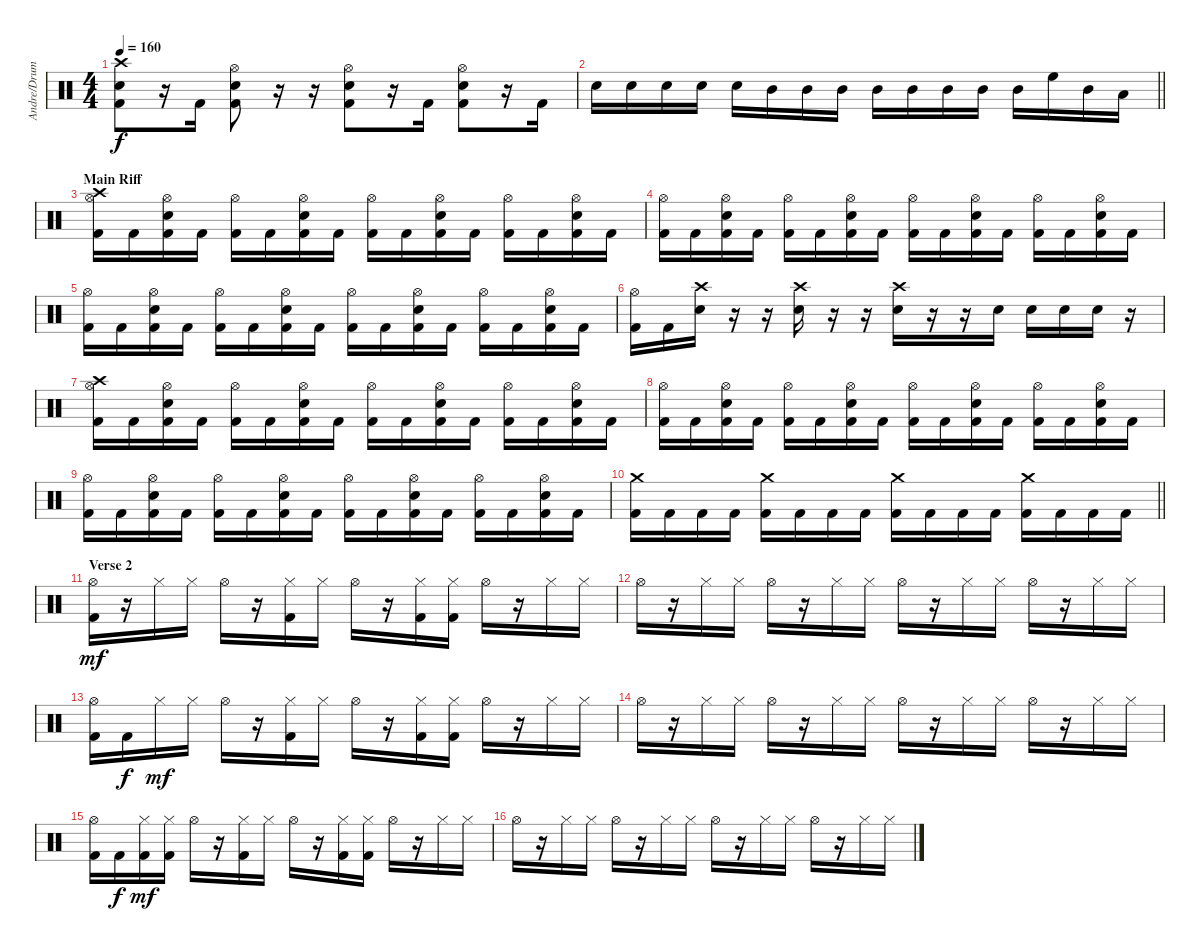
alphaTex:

\track ("Andre/Drums" "Andre/Drum") {instrument percussion}
\staff {score}
\articulation defaults
\ts (4 4)
\tempo 160
\clef neutral
\ks c
("Crash high (hit)" "Snare (hit) 2" "Kick (hit) 2").8{dy f} r.16 "Kick (hit) 2".16 ("Hi-Hat (open)" "Snare (hit) 2" "Kick (hit) 2").8 r.16 r.16 ("Hi-Hat (open)" "Snare (hit) 2" "Kick (hit) 2").8 r.16 "Kick (hit) 2".16 ("Hi-Hat (open)" "Snare (hit) 2" "Kick (hit) 2").8 r.16 "Kick (hit) 2".16 |
\barLineRight lightlight "Snare (hit) 2".16 "Snare (hit) 2".16 "Snare (hit) 2".16 "Snare (hit) 2".16 "Snare (hit) 2".16 "Mid Tom (hit)".16 "Mid Tom (hit)".16 "Mid Tom (hit)".16 "Mid Tom (hit)".16 "Mid Tom (hit)".16 "Mid Tom (hit)".16 "Mid Tom (hit)".16 "Mid Tom (hit)".16 "High Floor Tom (hit)".16 "Mid Tom (hit)".16 "Low Tom (hit)".16
|
\section ("" "Main Riff")
("Crash high (hit)" "Hi-Hat (open)" "Kick (hit) 2").16 "Kick (hit) 2".16 ("Hi-Hat (open)" "Snare (hit) 2" "Kick (hit) 2").16 "Kick (hit) 2".16 ("Hi-Hat (open)" "Kick (hit) 2").16 "Kick (hit) 2".16 ("Hi-Hat (open)" "Snare (hit) 2" "Kick (hit) 2").16 "Kick (hit) 2".16 ("Hi-Hat (open)" "Kick (hit) 2").16 "Kick (hit) 2".16 ("Hi-Hat (open)" "Snare (hit) 2" "Kick (hit) 2").16 "Kick (hit) 2".16 ("Hi-Hat (open)" "Kick (hit) 2").16 "Kick (hit) 2".16 ("Hi-Hat (open)" "Snare (hit) 2" "Kick (hit) 2").16 "Kick (hit) 2".16 |
("Hi-Hat (open)" "Kick (hit) 2").16 "Kick (hit) 2".16 ("Hi-Hat (open)" "Snare (hit) 2" "Kick (hit) 2").16 "Kick (hit) 2".16 ("Hi-Hat (open)" "Kick (hit) 2").16 "Kick (hit) 2".16 ("Hi-Hat (open)" "Snare (hit) 2" "Kick (hit) 2").16 "Kick (hit) 2".16 ("Hi-Hat (open)" "Kick (hit) 2").16 "Kick (hit) 2".16 ("Hi-Hat (open)" "Snare (hit) 2" "Kick (hit) 2").16 "Kick (hit) 2".16 ("Hi-Hat (open)" "Kick (hit) 2").16 "Kick (hit) 2".16 ("Hi-Hat (open)" "Snare (hit) 2" "Kick (hit) 2").16 "Kick (hit) 2".16 |
("Hi-Hat (open)" "Kick (hit) 2").16 "Kick (hit) 2".16 ("Hi-Hat (open)" "Snare (hit) 2" "Kick (hit) 2").16 "Kick (hit) 2".16 ("Hi-Hat (open)" "Kick (hit) 2").16 "Kick (hit) 2".16 ("Hi-Hat (open)" "Snare (hit) 2" "Kick (hit) 2").16 "Kick (hit) 2".16 ("Hi-Hat (open)" "Kick (hit) 2").16 "Kick (hit) 2".16 ("Hi-Hat (open)" "Snare (hit) 2" "Kick (hit) 2").16 "Kick (hit) 2".16 ("Hi-Hat (open)" "Kick (hit) 2").16 "Kick (hit) 2".16 ("Hi-Hat (open)" "Snare (hit) 2" "Kick (hit) 2").16 "Kick (hit) 2".16 |
("Hi-Hat (open)" "Kick (hit) 2").16 "Kick (hit) 2".16 ("Crash high (hit)" "Snare (hit) 2").16 r.16 r.16 ("Crash high (hit)" "Snare (hit) 2").16 r.16 r.16 ("Crash high (hit)" "Snare (hit) 2").16 r.16 r.16 "Snare (hit) 2".16 "Snare (hit) 2".16 "Snare (hit) 2".16 "Snare (hit) 2".16 r.16 |
("Crash high (hit)" "Hi-Hat (open)" "Kick (hit) 2").16 "Kick (hit) 2".16 ("Hi-Hat (open)" "Snare (hit) 2" "Kick (hit) 2").16 "Kick (hit) 2".16 ("Hi-Hat (open)" "Kick (hit) 2").16 "Kick (hit) 2".16 ("Hi-Hat (open)" "Snare (hit) 2" "Kick (hit) 2").16 "Kick (hit) 2".16 ("Hi-Hat (open)" "Kick (hit) 2").16 "Kick (hit) 2".16 ("Hi-Hat (open)" "Snare (hit) 2" "Kick (hit) 2").16 "Kick (hit) 2".16 ("Hi-Hat (open)" "Kick (hit) 2").16 "Kick (hit) 2".16 ("Hi-Hat (open)" "Snare (hit) 2" "Kick (hit) 2").16 "Kick (hit) 2".16 |
("Hi-Hat (open)" "Kick (hit) 2").16 "Kick (hit) 2".16 ("Hi-Hat (open)" "Snare (hit) 2" "Kick (hit) 2").16 "Kick (hit) 2".16 ("Hi-Hat (open)" "Kick (hit) 2").16 "Kick (hit) 2".16 ("Hi-Hat (open)" "Snare (hit) 2" "Kick (hit) 2").16 "Kick (hit) 2".16 ("Hi-Hat (open)" "Kick (hit) 2").16 "Kick (hit) 2".16 ("Hi-Hat (open)" "Snare (hit) 2" "Kick (hit) 2").16 "Kick (hit) 2".16 ("Hi-Hat (open)" "Kick (hit) 2").16 "Kick (hit) 2".16 ("Hi-Hat (open)" "Snare (hit) 2" "Kick (hit) 2").16 "Kick (hit) 2".16 |
("Hi-Hat (open)" "Kick (hit) 2").16 "Kick (hit) 2".16 ("Hi-Hat (open)" "Snare (hit) 2" "Kick (hit) 2").16 "Kick (hit) 2".16 ("Hi-Hat (open)" "Kick (hit) 2").16 "Kick (hit) 2".16 ("Hi-Hat (open)" "Snare (hit) 2" "Kick (hit) 2").16 "Kick (hit) 2".16 ("Hi-Hat (open)" "Kick (hit) 2").16 "Kick (hit) 2".16 ("Hi-Hat (open)" "Snare (hit) 2" "Kick (hit) 2").16 "Kick (hit) 2".16 ("Hi-Hat (open)" "Kick (hit) 2").16 "Kick (hit) 2".16 ("Hi-Hat (open)" "Snare (hit) 2" "Kick (hit) 2").16 "Kick (hit) 2".16 |
\barLineRight lightlight
("Crash medium (hit)" "Kick (hit) 2").16 "Kick (hit) 2".16 "Kick (hit) 2".16 "Kick (hit) 2".16 ("Crash medium (hit)" "Kick (hit) 2").16 "Kick (hit) 2".16 "Kick (hit) 2".16 "Kick (hit) 2".16 ("Crash medium (hit)" "Kick (hit) 2").16 "Kick (hit) 2".16 "Kick (hit) 2".16 "Kick (hit) 2".16 ("Crash medium (hit)" "Kick (hit) 2").16 "Kick (hit) 2".16 "Kick (hit) 2".16 "Kick (hit) 2".16 |
\section ("" "Verse 2")
("Hi-Hat (open)" "Kick (hit) 2").16{dy mf} r.16 "Hi-Hat (closed)".16 "Hi-Hat (closed)".16 "Hi-Hat (open)".16 r.16 ("Hi-Hat (closed)" "Kick (hit) 2").16 "Hi-Hat (closed)".16 "Hi-Hat (open)".16 r.16 ("Hi-Hat (closed)" "Kick (hit) 2").16 ("Hi-Hat (closed)" "Kick (hit) 2").16 "Hi-Hat (open)".16 r.16 "Hi-Hat (closed)".16 "Hi-Hat (closed)".16 |
"Hi-Hat (open)".16 r.16 "Hi-Hat (closed)".16 "Hi-Hat (closed)".16 "Hi-Hat (open)".16 r.16 "Hi-Hat (closed)".16 "Hi-Hat (closed)".16 "Hi-Hat (open)".16 r.16 "Hi-Hat (closed)".16 "Hi-Hat (closed)".16 "Hi-Hat (open)".16 r.16 "Hi-Hat (closed)".16 "Hi-Hat (closed)".16 |
("Hi-Hat (open)" "Kick (hit) 2").16 "Kick (hit) 2".16{dy f} "Hi-Hat (closed)".16{dy mf} "Hi-Hat (closed)".16 "Hi-Hat (open)".16 r.16 ("Hi-Hat (closed)" "Kick (hit) 2").16 "Hi-Hat (closed)".16 "Hi-Hat (open)".16 r.16 ("Hi-Hat (closed)" "Kick (hit) 2").16 ("Hi-Hat (closed)" "Kick (hit) 2").16 "Hi-Hat (open)".16 r.16 "Hi-Hat (closed)".16 "Hi-Hat (closed)".16 |
"Hi-Hat (open)".16 r.16 "Hi-Hat (closed)".16 "Hi-Hat (closed)".16 "Hi-Hat (open)".16 r.16 "Hi-Hat (closed)".16 "Hi-Hat (closed)".16 "Hi-Hat (open)".16 r.16 "Hi-Hat (closed)".16 "Hi-Hat (closed)".16 "Hi-Hat (open)".16 r.16 "Hi-Hat (closed)".16 "Hi-Hat (closed)".16 |
("Hi-Hat (open)" "Kick (hit) 2").16 "Kick (hit) 2".16{dy f} ("Hi-Hat (closed)" "Kick (hit) 2").16{dy mf} ("Hi-Hat (closed)" "Kick (hit) 2").16 "Hi-Hat (open)".16 r.16 ("Hi-Hat (closed)" "Kick (hit) 2").16 "Hi-Hat (closed)".16 "Hi-Hat (open)".16 r.16 ("Hi-Hat (closed)" "Kick (hit) 2").16 ("Hi-Hat (closed)" "Kick (hit) 2").16 "Hi-Hat (open)".16 r.16 "Hi-Hat (closed)".16 "Hi-Hat (closed)".16 |
"Hi-Hat (open)".16 r.16 "Hi-Hat (closed)".16 "Hi-Hat (closed)".16 "Hi-Hat (open)".16 r.16 "Hi-Hat (closed)".16 "Hi-Hat (closed)".16 "Hi-Hat (open)".16 r.16 "Hi-Hat (closed)".16 "Hi-Hat (closed)".16 "Hi-Hat (open)".16 r.16 "Hi-Hat (closed)".16 "Hi-Hat (closed)".16
